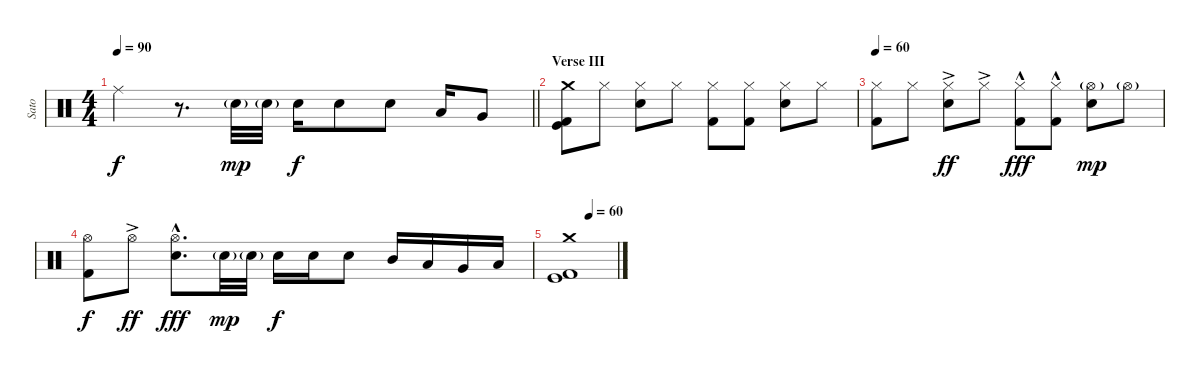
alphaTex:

\track ("Sato" "Sato") {instrument percussion}
\staff {score}
\articulation defaults
\ts (4 4)
\tempo 90
\clef neutral
\barLineRight lightlight
\ks c "Ride (middle)".4{dy f}
r.8{d} "Electric Snare (hit)"{g}.32{dy mp} "Electric Snare (hit)"{g}.32 "Electric Snare (hit)".16{dy f} "Electric Snare (hit)".8 "Electric Snare (hit)".8 "Low Tom (hit)".16 "Very Low Tom (hit)".8 |
\section ("" "Verse III")
("Crash medium (hit)" "Kick (hit) 2" "Kick (hit)").8 "Hi-Hat (closed)".8 ("Hi-Hat (closed)" "Electric Snare (hit)").8 "Hi-Hat (closed)".8 ("Hi-Hat (closed)" "Kick (hit) 2").8 ("Hi-Hat (closed)" "Kick (hit) 2").8 ("Hi-Hat (closed)" "Electric Snare (hit)").8 "Hi-Hat (closed)".8 |
\tempo 60
("Hi-Hat (closed)" "Kick (hit) 2").8 "Hi-Hat (closed)".8 ("Hi-Hat (closed)"{ac} "Electric Snare (hit)").8{dy ff} "Hi-Hat (closed)"{ac}.8 ("Hi-Hat (closed)"{hac} "Kick (hit) 2").8{dy fff} ("Hi-Hat (closed)"{hac} "Kick (hit) 2").8 ("Hi-Hat (open)"{g} "Electric Snare (hit)").8{dy mp} "Hi-Hat (open)"{g}.8 |
("Hi-Hat (open)" "Kick (hit) 2").8{dy f} "Hi-Hat (open)"{ac}.8{dy ff} ("Hi-Hat (open)"{hac} "Electric Snare (hit)").8{d dy fff} "Electric Snare (hit)"{g}.32{dy mp} "Electric Snare (hit)"{g}.32 "Electric Snare (hit)".16{dy f} "Electric Snare (hit)".16 "Electric Snare (hit)".8 "Mid Tom (hit)".16 "Low Tom (hit)".16 "Very Low Tom (hit)".16 "Low Floor Tom (hit)".16 |
\tempo (60 0.5)
("Crash medium (hit)" "Kick (hit) 2" "Kick (hit)").1
